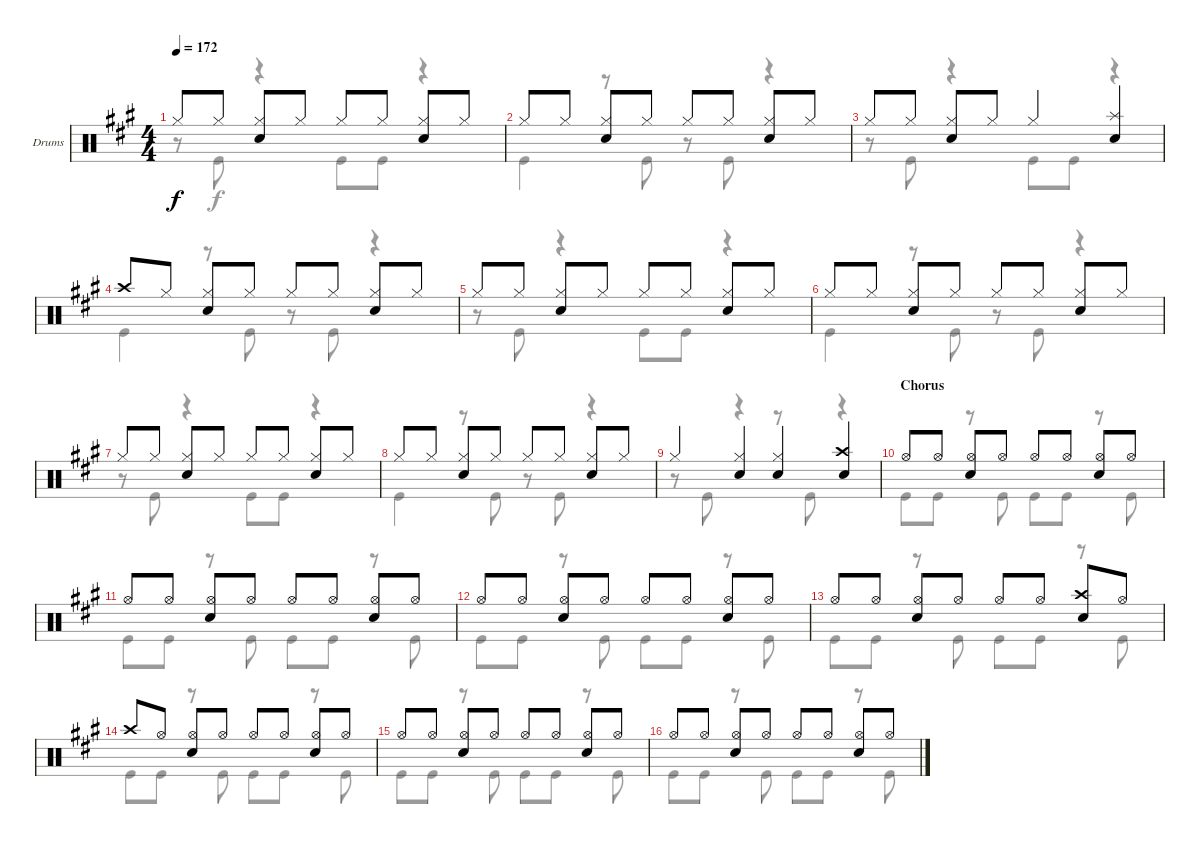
\defaultSystemsLayout 4
\bracketExtendMode groupsimilarinstruments
\firstSystemTrackNameOrientation horizontal
\otherSystemsTrackNameOrientation horizontal
\track ("Taylor Hawkins" "Drums") {instrument percussion}
\staff {score}
\articulation defaults
\voice
\ts (4 4)
\tempo 172
\clef neutral
\ks a "Hi-Hat (closed)".8{dy f} "Hi-Hat (closed)".8
("Hi-Hat (closed)" "Snare (hit) 2").8 "Hi-Hat (closed)".8 "Hi-Hat (closed)".8 "Hi-Hat (closed)".8 ("Hi-Hat (closed)" "Snare (hit) 2").8 "Hi-Hat (closed)".8 |
"Hi-Hat (closed)".8 "Hi-Hat (closed)".8 ("Hi-Hat (closed)" "Snare (hit) 2").8 "Hi-Hat (closed)".8 "Hi-Hat (closed)".8 "Hi-Hat (closed)".8 ("Snare (hit) 2" "Hi-Hat (closed)").8 "Hi-Hat (closed)".8 |
"Hi-Hat (closed)".8 "Hi-Hat (closed)".8 ("Hi-Hat (closed)" "Snare (hit) 2").8 "Hi-Hat (closed)".8 "Hi-Hat (closed)".4 ("Snare (hit) 2" "Splash (hit)").4 |
"Crash high (hit)".8 "Hi-Hat (closed)".8 ("Hi-Hat (closed)" "Snare (hit) 2").8 "Hi-Hat (closed)".8 "Hi-Hat (closed)".8 "Hi-Hat (closed)".8 ("Hi-Hat (closed)" "Snare (hit) 2").8 "Hi-Hat (closed)".8 |
"Hi-Hat (closed)".8 "Hi-Hat (closed)".8 ("Hi-Hat (closed)" "Snare (hit) 2").8 "Hi-Hat (closed)".8 "Hi-Hat (closed)".8 "Hi-Hat (closed)".8 ("Hi-Hat (closed)" "Snare (hit) 2").8 "Hi-Hat (closed)".8 |
"Hi-Hat (closed)".8 "Hi-Hat (closed)".8 ("Hi-Hat (closed)" "Snare (hit) 2").8 "Hi-Hat (closed)".8 "Hi-Hat (closed)".8 "Hi-Hat (closed)".8 ("Hi-Hat (closed)" "Snare (hit) 2").8 "Hi-Hat (closed)".8 |
"Hi-Hat (closed)".8 "Hi-Hat (closed)".8 ("Hi-Hat (closed)" "Snare (hit) 2").8 "Hi-Hat (closed)".8 "Hi-Hat (closed)".8 "Hi-Hat (closed)".8 ("Hi-Hat (closed)" "Snare (hit) 2").8 "Hi-Hat (closed)".8 |
"Hi-Hat (closed)".8 "Hi-Hat (closed)".8 ("Hi-Hat (closed)" "Snare (hit) 2").8 "Hi-Hat (closed)".8 "Hi-Hat (closed)".8 "Hi-Hat (closed)".8 ("Hi-Hat (closed)" "Snare (hit) 2").8 "Hi-Hat (closed)".8 |
"Hi-Hat (closed)".4 ("Hi-Hat (closed)" "Snare (hit) 2").4 ("Snare (hit) 2" "Hi-Hat (closed)").4 ("Snare (hit) 2" "Crash high (hit)").4 |
\section ("" "Chorus")
"Hi-Hat (open)".8 "Hi-Hat (open)".8 ("Hi-Hat (open)" "Snare (hit) 2").8 "Hi-Hat (open)".8 "Hi-Hat (open)".8 "Hi-Hat (open)".8 ("Hi-Hat (open)" "Snare (hit) 2").8 "Hi-Hat (open)".8 |
"Hi-Hat (open)".8 "Hi-Hat (open)".8 ("Hi-Hat (open)" "Snare (hit) 2").8 "Hi-Hat (open)".8 "Hi-Hat (open)".8 "Hi-Hat (open)".8 ("Hi-Hat (open)" "Snare (hit) 2").8 "Hi-Hat (open)".8 |
"Hi-Hat (open)".8 "Hi-Hat (open)".8 ("Hi-Hat (open)" "Snare (hit) 2").8 "Hi-Hat (open)".8 "Hi-Hat (open)".8 "Hi-Hat (open)".8 ("Hi-Hat (open)" "Snare (hit) 2").8 "Hi-Hat (open)".8 |
"Hi-Hat (open)".8 "Hi-Hat (open)".8 ("Hi-Hat (open)" "Snare (hit) 2").8 "Hi-Hat (open)".8 "Hi-Hat (open)".8 "Hi-Hat (open)".8 ("Crash high (hit)" "Snare (hit) 2").8 "Hi-Hat (open)".8 |
"Crash high (hit)".8 "Hi-Hat (open)".8 ("Hi-Hat (open)" "Snare (hit) 2").8 "Hi-Hat (open)".8 "Hi-Hat (open)".8 "Hi-Hat (open)".8 ("Hi-Hat (open)" "Snare (hit) 2").8 "Hi-Hat (open)".8 |
"Hi-Hat (open)".8 "Hi-Hat (open)".8 ("Hi-Hat (open)" "Snare (hit) 2").8 "Hi-Hat (open)".8 "Hi-Hat (open)".8 "Hi-Hat (open)".8 ("Hi-Hat (open)" "Snare (hit) 2").8 "Hi-Hat (open)".8 |
"Hi-Hat (open)".8 "Hi-Hat (open)".8 ("Hi-Hat (open)" "Snare (hit) 2").8 "Hi-Hat (open)".8 "Hi-Hat (open)".8 "Hi-Hat (open)".8 ("Hi-Hat (open)" "Snare (hit) 2").8 "Hi-Hat (open)".8
\voice
\clef neutral
\ottava regular
\simile none
\ks a
r.8{dy f} "Kick (hit)".8 r.4 "Kick (hit)".8 "Kick (hit)".8 r.4 |
"Kick (hit)".4 r.8 "Kick (hit)".8 r.8 "Kick (hit)".8 r.4 |
r.8 "Kick (hit)".8 r.4 "Kick (hit)".8 "Kick (hit)".8 r.4 |
"Kick (hit)".4 r.8 "Kick (hit)".8 r.8 "Kick (hit)".8 r.4 |
r.8 "Kick (hit)".8 r.4 "Kick (hit)".8 "Kick (hit)".8 r.4 |
"Kick (hit)".4 r.8 "Kick (hit)".8 r.8 "Kick (hit)".8 r.4 |
r.8 "Kick (hit)".8 r.4 "Kick (hit)".8 "Kick (hit)".8 r.4 |
"Kick (hit)".4 r.8 "Kick (hit)".8 r.8 "Kick (hit)".8 r.4 |
r.8 "Kick (hit)".8 r.4 r.8 "Kick (hit)".8 r.4 |
"Kick (hit)".8 "Kick (hit)".8 r.8 "Kick (hit)".8 "Kick (hit)".8 "Kick (hit)".8 r.8 "Kick (hit)".8 |
"Kick (hit)".8 "Kick (hit)".8 r.8 "Kick (hit)".8 "Kick (hit)".8 "Kick (hit)".8 r.8 "Kick (hit)".8 |
"Kick (hit)".8 "Kick (hit)".8 r.8 "Kick (hit)".8 "Kick (hit)".8 "Kick (hit)".8 r.8 "Kick (hit)".8 |
"Kick (hit)".8 "Kick (hit)".8 r.8 "Kick (hit)".8 "Kick (hit)".8 "Kick (hit)".8 r.8 "Kick (hit)".8 |
"Kick (hit)".8 "Kick (hit)".8 r.8 "Kick (hit)".8 "Kick (hit)".8 "Kick (hit)".8 r.8 "Kick (hit)".8 |
"Kick (hit)".8 "Kick (hit)".8 r.8 "Kick (hit)".8 "Kick (hit)".8 "Kick (hit)".8 r.8 "Kick (hit)".8 |
"Kick (hit)".8 "Kick (hit)".8 r.8 "Kick (hit)".8 "Kick (hit)".8 "Kick (hit)".8 r.8 "Kick (hit)".8
